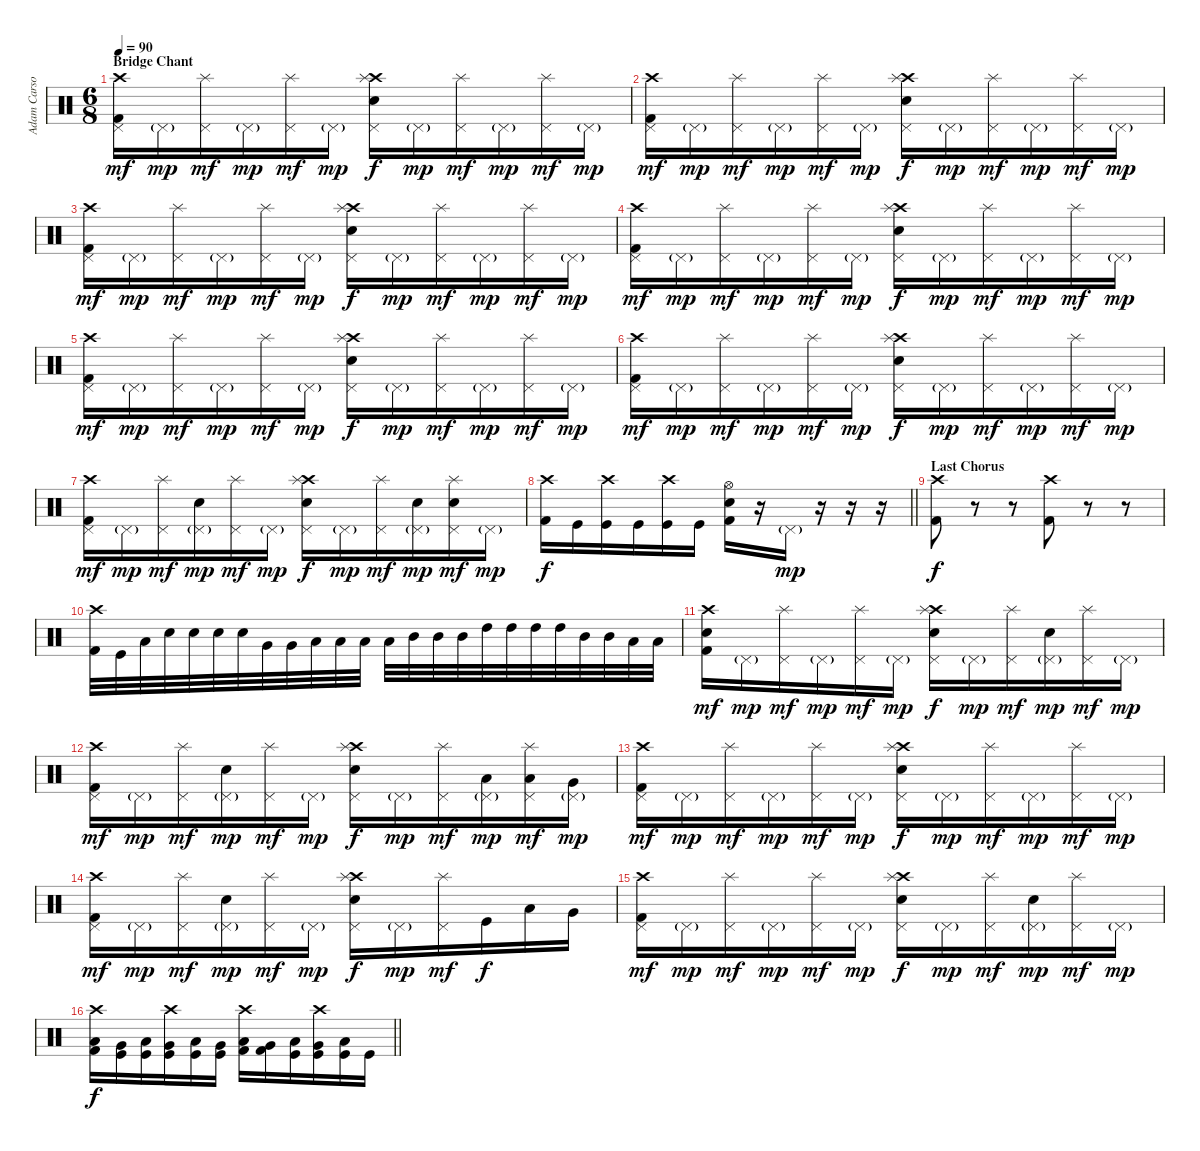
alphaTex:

\track ("Adam Carson" "Adam Carso") {instrument percussion}
\staff {score}
\articulation defaults
\ts (6 8)
\section ("" "Bridge Chant")
\tempo 90
\clef neutral
\ks c
("Crash high (hit)" "Pedal Hi-Hat (hit)" "Kick (hit) 2").16{dy mf} "Pedal Hi-Hat (hit)"{g}.16{dy mp} ("Pedal Hi-Hat (hit)" "Splash (hit)").16{dy mf} "Pedal Hi-Hat (hit)"{g}.16{dy mp} ("Pedal Hi-Hat (hit)" "Splash (hit)").16{dy mf} "Pedal Hi-Hat (hit)"{g}.16{dy mp} ("Crash high (hit)" "Pedal Hi-Hat (hit)" "Splash (hit)" "Snare (hit) 2").16{dy f} "Pedal Hi-Hat (hit)"{g}.16{dy mp} ("Pedal Hi-Hat (hit)" "Splash (hit)").16{dy mf} "Pedal Hi-Hat (hit)"{g}.16{dy mp} ("Pedal Hi-Hat (hit)" "Splash (hit)").16{dy mf} "Pedal Hi-Hat (hit)"{g}.16{dy mp} |
("Crash high (hit)" "Pedal Hi-Hat (hit)" "Kick (hit) 2").16{dy mf} "Pedal Hi-Hat (hit)"{g}.16{dy mp} ("Pedal Hi-Hat (hit)" "Splash (hit)").16{dy mf} "Pedal Hi-Hat (hit)"{g}.16{dy mp} ("Pedal Hi-Hat (hit)" "Splash (hit)").16{dy mf} "Pedal Hi-Hat (hit)"{g}.16{dy mp} ("Crash high (hit)" "Pedal Hi-Hat (hit)" "Splash (hit)" "Snare (hit) 2").16{dy f} "Pedal Hi-Hat (hit)"{g}.16{dy mp} ("Pedal Hi-Hat (hit)" "Splash (hit)").16{dy mf} "Pedal Hi-Hat (hit)"{g}.16{dy mp} ("Pedal Hi-Hat (hit)" "Splash (hit)").16{dy mf} "Pedal Hi-Hat (hit)"{g}.16{dy mp} |
("Crash high (hit)" "Pedal Hi-Hat (hit)" "Kick (hit) 2").16{dy mf} "Pedal Hi-Hat (hit)"{g}.16{dy mp} ("Pedal Hi-Hat (hit)" "Splash (hit)").16{dy mf} "Pedal Hi-Hat (hit)"{g}.16{dy mp} ("Pedal Hi-Hat (hit)" "Splash (hit)").16{dy mf} "Pedal Hi-Hat (hit)"{g}.16{dy mp} ("Crash high (hit)" "Pedal Hi-Hat (hit)" "Splash (hit)" "Snare (hit) 2").16{dy f} "Pedal Hi-Hat (hit)"{g}.16{dy mp} ("Pedal Hi-Hat (hit)" "Splash (hit)").16{dy mf} "Pedal Hi-Hat (hit)"{g}.16{dy mp} ("Pedal Hi-Hat (hit)" "Splash (hit)").16{dy mf} "Pedal Hi-Hat (hit)"{g}.16{dy mp} |
("Crash high (hit)" "Pedal Hi-Hat (hit)" "Kick (hit) 2").16{dy mf} "Pedal Hi-Hat (hit)"{g}.16{dy mp} ("Pedal Hi-Hat (hit)" "Splash (hit)").16{dy mf} "Pedal Hi-Hat (hit)"{g}.16{dy mp} ("Pedal Hi-Hat (hit)" "Splash (hit)").16{dy mf} "Pedal Hi-Hat (hit)"{g}.16{dy mp} ("Crash high (hit)" "Pedal Hi-Hat (hit)" "Splash (hit)" "Snare (hit) 2").16{dy f} "Pedal Hi-Hat (hit)"{g}.16{dy mp} ("Pedal Hi-Hat (hit)" "Splash (hit)").16{dy mf} "Pedal Hi-Hat (hit)"{g}.16{dy mp} ("Pedal Hi-Hat (hit)" "Splash (hit)").16{dy mf} "Pedal Hi-Hat (hit)"{g}.16{dy mp} |
("Crash high (hit)" "Pedal Hi-Hat (hit)" "Kick (hit) 2").16{dy mf} "Pedal Hi-Hat (hit)"{g}.16{dy mp} ("Pedal Hi-Hat (hit)" "Splash (hit)").16{dy mf} "Pedal Hi-Hat (hit)"{g}.16{dy mp} ("Pedal Hi-Hat (hit)" "Splash (hit)").16{dy mf} "Pedal Hi-Hat (hit)"{g}.16{dy mp} ("Crash high (hit)" "Pedal Hi-Hat (hit)" "Splash (hit)" "Snare (hit) 2").16{dy f} "Pedal Hi-Hat (hit)"{g}.16{dy mp} ("Pedal Hi-Hat (hit)" "Splash (hit)").16{dy mf} "Pedal Hi-Hat (hit)"{g}.16{dy mp} ("Pedal Hi-Hat (hit)" "Splash (hit)").16{dy mf} "Pedal Hi-Hat (hit)"{g}.16{dy mp} |
("Crash high (hit)" "Pedal Hi-Hat (hit)" "Kick (hit) 2").16{dy mf} "Pedal Hi-Hat (hit)"{g}.16{dy mp} ("Pedal Hi-Hat (hit)" "Splash (hit)").16{dy mf} "Pedal Hi-Hat (hit)"{g}.16{dy mp} ("Pedal Hi-Hat (hit)" "Splash (hit)").16{dy mf} "Pedal Hi-Hat (hit)"{g}.16{dy mp} ("Crash high (hit)" "Pedal Hi-Hat (hit)" "Splash (hit)" "Snare (hit) 2").16{dy f} "Pedal Hi-Hat (hit)"{g}.16{dy mp} ("Pedal Hi-Hat (hit)" "Splash (hit)").16{dy mf} "Pedal Hi-Hat (hit)"{g}.16{dy mp} ("Pedal Hi-Hat (hit)" "Splash (hit)").16{dy mf} "Pedal Hi-Hat (hit)"{g}.16{dy mp} |
("Crash high (hit)" "Pedal Hi-Hat (hit)" "Kick (hit) 2").16{dy mf} "Pedal Hi-Hat (hit)"{g}.16{dy mp} ("Pedal Hi-Hat (hit)" "Splash (hit)").16{dy mf} ("Pedal Hi-Hat (hit)"{g} "Snare (hit) 2").16{dy mp} ("Pedal Hi-Hat (hit)" "Splash (hit)").16{dy mf} "Pedal Hi-Hat (hit)"{g}.16{dy mp} ("Crash high (hit)" "Pedal Hi-Hat (hit)" "Splash (hit)" "Snare (hit) 2").16{dy f} "Pedal Hi-Hat (hit)"{g}.16{dy mp} ("Pedal Hi-Hat (hit)" "Splash (hit)").16{dy mf} ("Pedal Hi-Hat (hit)"{g} "Snare (hit) 2").16{dy mp} ("Pedal Hi-Hat (hit)" "Splash (hit)" "Snare (hit) 2").16{dy mf} "Pedal Hi-Hat (hit)"{g}.16{dy mp} |
\barLineRight lightlight
("Crash high (hit)" "Kick (hit) 2").16{dy f} "Kick (hit)".16 ("Crash high (hit)" "Kick (hit)").16 "Kick (hit)".16 ("Crash high (hit)" "Kick (hit)").16 "Kick (hit)".16 ("Hi-Hat (open)" "Snare (hit) 2" "Kick (hit) 2").16 r.16 "Pedal Hi-Hat (hit)"{g}.16{dy mp} r.16 r.16 r.16 |
\section ("" "Last Chorus")
("Crash high (hit)" "Kick (hit) 2").8{dy f} r.8 r.8 ("Crash high (hit)" "Kick (hit) 2").8 r.8 r.8 |
("Crash high (hit)" "Kick (hit) 2").32 "Kick (hit)".32 "Low Floor Tom (hit)".32 "Snare (hit) 2".32 "Snare (hit) 2".32 "Snare (hit) 2".32 "Snare (hit) 2".32 "Very Low Tom (hit)".32 "Very Low Tom (hit)".32 "Low Tom (hit)".32 "Low Tom (hit)".32 "Low Tom (hit)".32 "Low Tom (hit)".32 "Mid Tom (hit)".32 "Mid Tom (hit)".32 "Mid Tom (hit)".32 "High Tom (hit)".32 "High Tom (hit)".32 "High Tom (hit)".32 "High Tom (hit)".32 "Mid Tom (hit)".32 "Mid Tom (hit)".32 "Low Tom (hit)".32 "Low Tom (hit)".32 |
("Crash high (hit)" "Snare (hit)" "Kick (hit) 2").16{dy mf} "Pedal Hi-Hat (hit)"{g}.16{dy mp} ("Pedal Hi-Hat (hit)" "Splash (hit)").16{dy mf} "Pedal Hi-Hat (hit)"{g}.16{dy mp} ("Pedal Hi-Hat (hit)" "Splash (hit)").16{dy mf} "Pedal Hi-Hat (hit)"{g}.16{dy mp} ("Crash high (hit)" "Pedal Hi-Hat (hit)" "Splash (hit)" "Snare (hit) 2").16{dy f} "Pedal Hi-Hat (hit)"{g}.16{dy mp} ("Pedal Hi-Hat (hit)" "Splash (hit)").16{dy mf} ("Pedal Hi-Hat (hit)"{g} "Snare (hit) 2").16{dy mp} ("Pedal Hi-Hat (hit)" "Splash (hit)").16{dy mf} "Pedal Hi-Hat (hit)"{g}.16{dy mp} |
("Crash high (hit)" "Pedal Hi-Hat (hit)" "Kick (hit) 2").16{dy mf} "Pedal Hi-Hat (hit)"{g}.16{dy mp} ("Pedal Hi-Hat (hit)" "Splash (hit)").16{dy mf} ("Pedal Hi-Hat (hit)"{g} "Snare (hit) 2").16{dy mp} ("Pedal Hi-Hat (hit)" "Splash (hit)").16{dy mf} "Pedal Hi-Hat (hit)"{g}.16{dy mp} ("Crash high (hit)" "Pedal Hi-Hat (hit)" "Splash (hit)" "Snare (hit) 2").16{dy f} "Pedal Hi-Hat (hit)"{g}.16{dy mp} ("Pedal Hi-Hat (hit)" "Splash (hit)").16{dy mf} ("Pedal Hi-Hat (hit)"{g} "Low Tom (hit)").16{dy mp} ("Pedal Hi-Hat (hit)" "Splash (hit)" "Low Floor Tom (hit)").16{dy mf} ("Pedal Hi-Hat (hit)"{g} "Very Low Tom (hit)").16{dy mp} |
("Crash high (hit)" "Pedal Hi-Hat (hit)" "Kick (hit) 2").16{dy mf} "Pedal Hi-Hat (hit)"{g}.16{dy mp} ("Pedal Hi-Hat (hit)" "Splash (hit)").16{dy mf} "Pedal Hi-Hat (hit)"{g}.16{dy mp} ("Pedal Hi-Hat (hit)" "Splash (hit)").16{dy mf} "Pedal Hi-Hat (hit)"{g}.16{dy mp} ("Crash high (hit)" "Pedal Hi-Hat (hit)" "Splash (hit)" "Snare (hit) 2").16{dy f} "Pedal Hi-Hat (hit)"{g}.16{dy mp} ("Pedal Hi-Hat (hit)" "Splash (hit)").16{dy mf} "Pedal Hi-Hat (hit)"{g}.16{dy mp} ("Pedal Hi-Hat (hit)" "Splash (hit)").16{dy mf} "Pedal Hi-Hat (hit)"{g}.16{dy mp} |
("Crash high (hit)" "Pedal Hi-Hat (hit)" "Kick (hit) 2").16{dy mf} "Pedal Hi-Hat (hit)"{g}.16{dy mp} ("Pedal Hi-Hat (hit)" "Splash (hit)").16{dy mf} ("Pedal Hi-Hat (hit)"{g} "Snare (hit) 2").16{dy mp} ("Pedal Hi-Hat (hit)" "Splash (hit)").16{dy mf} "Pedal Hi-Hat (hit)"{g}.16{dy mp} ("Crash high (hit)" "Pedal Hi-Hat (hit)" "Splash (hit)" "Snare (hit) 2").16{dy f} "Pedal Hi-Hat (hit)"{g}.16{dy mp} ("Pedal Hi-Hat (hit)" "Splash (hit)").16{dy mf} "Kick (hit)".16{dy f} "Low Floor Tom (hit)".16 "Very Low Tom (hit)".16 |
("Crash high (hit)" "Pedal Hi-Hat (hit)" "Kick (hit) 2").16{dy mf} "Pedal Hi-Hat (hit)"{g}.16{dy mp} ("Pedal Hi-Hat (hit)" "Splash (hit)").16{dy mf} "Pedal Hi-Hat (hit)"{g}.16{dy mp} ("Pedal Hi-Hat (hit)" "Splash (hit)").16{dy mf} "Pedal Hi-Hat (hit)"{g}.16{dy mp} ("Crash high (hit)" "Pedal Hi-Hat (hit)" "Splash (hit)" "Snare (hit) 2").16{dy f} "Pedal Hi-Hat (hit)"{g}.16{dy mp} ("Pedal Hi-Hat (hit)" "Splash (hit)").16{dy mf} ("Pedal Hi-Hat (hit)"{g} "Snare (hit) 2").16{dy mp} ("Pedal Hi-Hat (hit)" "Splash (hit)").16{dy mf} "Pedal Hi-Hat (hit)"{g}.16{dy mp} |
\barLineRight lightlight
("Crash high (hit)" "Low Floor Tom (hit)" "Kick (hit) 2").16{dy f} ("Very Low Tom (hit)" "Kick (hit)").16 ("Low Tom (hit)" "Kick (hit)").16 ("Crash high (hit)" "Very Low Tom (hit)" "Kick (hit)").16 ("Low Floor Tom (hit)" "Kick (hit)").16 ("Very Low Tom (hit)" "Kick (hit)").16 ("Crash high (hit)" "Low Floor Tom (hit)" "Kick (hit) 2").16 ("Very Low Tom (hit)" "Kick (hit) 2").16 ("Low Tom (hit)" "Kick (hit)").16 ("Crash high (hit)" "Very Low Tom (hit)" "Kick (hit)").16 ("Low Floor Tom (hit)" "Kick (hit)").16 "Kick (hit)".16
